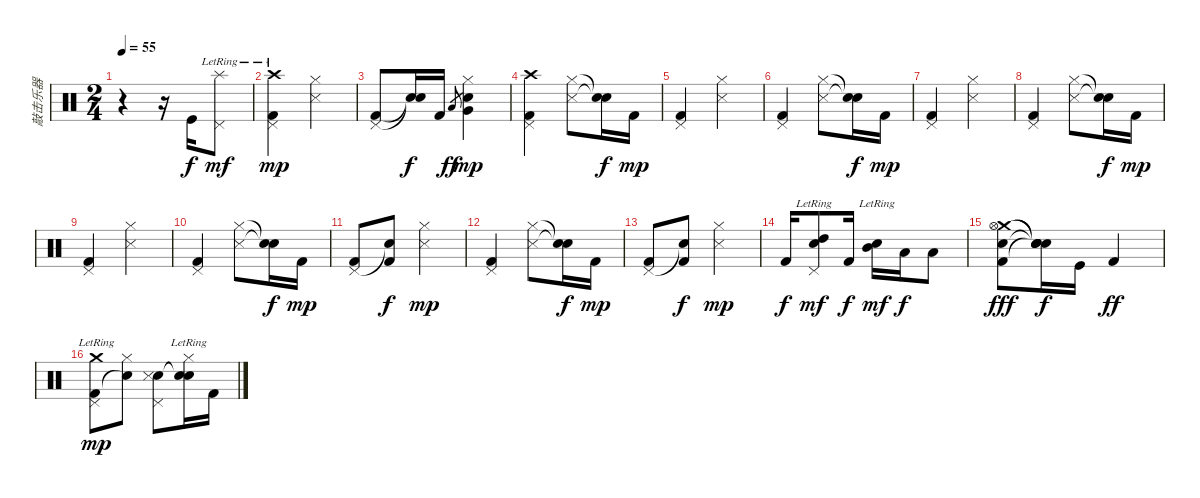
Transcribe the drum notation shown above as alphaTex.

\track ("敲击乐器" "敲击乐器") {instrument percussion}
\staff {score}
\articulation defaults
\ts (2 4)
\tempo 55
\clef neutral
\ks c
r.4{dy mp} r.16 "Kick (hit)".16{dy f} ("Splash (hit)"{lr} "Pedal Hi-Hat (hit)"{lr}).8{dy mf} |
("Kick (hit) 2" "Crash high (hit)"{lr} "Pedal Hi-Hat (hit)").4{dy mp} ("Snare (side stick) 3" "Hi-Hat (closed)").4 |
("Kick (hit) 2" "Pedal Hi-Hat (hit)").8 ("Snare (hit)"{t} "Snare (hit)"{t}).16{dy f} "Kick (hit) 2".16 "Low Tom (hit)".8{gr dy ff} ("Very Low Tom (hit)" "Electric Snare (hit)" "Hi-Hat (closed)").4{dy mp} |
("Kick (hit) 2" "Crash high (hit)" "Pedal Hi-Hat (hit)").4 ("Snare (side stick) 3" "Hi-Hat (closed)").8 ("Snare (hit)"{t} "Snare (hit)"{t}).16{dy f} "Kick (hit) 2".16{dy mp} |
("Kick (hit) 2" "Pedal Hi-Hat (hit)").4 ("Snare (side stick) 3" "Hi-Hat (closed)").4 |
("Kick (hit) 2" "Pedal Hi-Hat (hit)").4 ("Snare (side stick) 3" "Hi-Hat (closed)").8 ("Snare (hit)"{t} "Snare (hit)"{t}).16{dy f} "Kick (hit) 2".16{dy mp} |
("Kick (hit) 2" "Pedal Hi-Hat (hit)").4 ("Snare (side stick) 3" "Hi-Hat (closed)").4 |
("Kick (hit) 2" "Pedal Hi-Hat (hit)").4 ("Snare (side stick) 3" "Hi-Hat (closed)").8 ("Snare (hit)"{t} "Snare (hit)"{t}).16{dy f} "Kick (hit) 2".16{dy mp} |
("Kick (hit) 2" "Pedal Hi-Hat (hit)").4 ("Snare (side stick) 3" "Hi-Hat (closed)").4 |
("Kick (hit) 2" "Pedal Hi-Hat (hit)").4 ("Snare (side stick) 3" "Hi-Hat (closed)").8 ("Snare (hit)"{t} "Snare (hit)"{t}).16{dy f} "Kick (hit) 2".16{dy mp} |
("Kick (hit) 2" "Pedal Hi-Hat (hit)").8 ("Kick (hit) 2" "Snare (hit)"{t}).8{dy f} ("Snare (side stick) 3" "Hi-Hat (closed)").4{dy mp} |
("Kick (hit) 2" "Pedal Hi-Hat (hit)").4 ("Snare (side stick) 3" "Hi-Hat (closed)").8 ("Snare (hit)"{t} "Snare (hit)"{t}).16{dy f} "Kick (hit) 2".16{dy mp} |
("Kick (hit) 2" "Pedal Hi-Hat (hit)").8 ("Kick (hit) 2" "Snare (hit)"{t}).8{dy f} ("Snare (side stick) 3" "Hi-Hat (closed)").4{dy mp} |
"Kick (hit) 2".16{dy f} ("High Tom (hit)" "Snare (hit) 2"{lr} "Pedal Hi-Hat (hit)").8{dy mf} "Kick (hit) 2".16{dy f} ("Mid Tom (hit)" "Snare (hit) 2"{lr}).16{dy mf} "Low Tom (hit)".16{dy f} "Low Floor Tom (hit)".8 |
("Snare (hit) 2" "Kick (hit) 2" "Crash medium (hit)" "Hi-Hat (open)").8{dy fff} ("Snare (hit)"{t} "Snare (hit)"{t} "Snare (hit)"{t} "Snare (hit)"{t}).16{dy f} "Kick (hit)".16 "Kick (hit) 2".4{dy ff} |
("Kick (hit) 2" "Crash medium (hit)"{lr} "Pedal Hi-Hat (hit)").8{dy mp} ("Snare (hit)"{t} "Hi-Hat (closed)").8 ("Snare (hit) 2" "Snare (side stick) 3" "Pedal Hi-Hat (hit)").8 ("Snare (hit)"{t} "Snare (hit)"{t} "Hi-Hat (closed)"{lr}).16 "Kick (hit) 2".16
